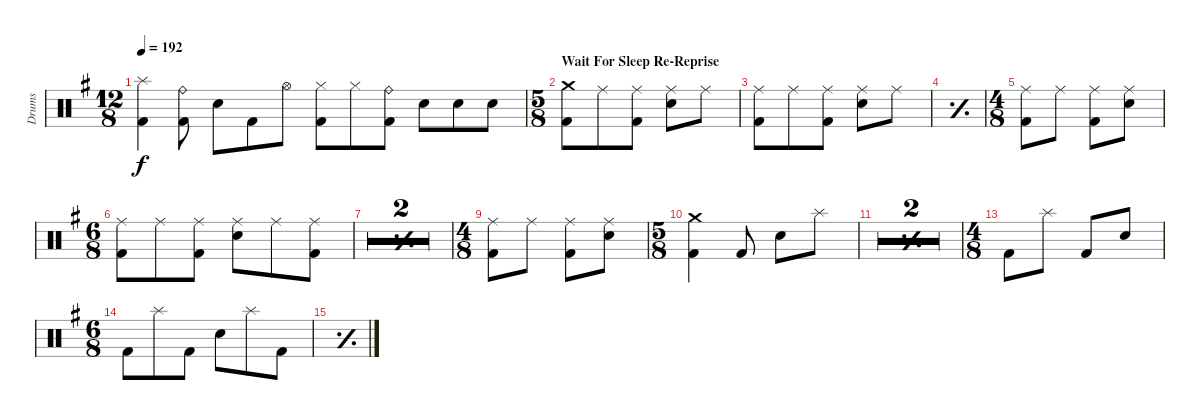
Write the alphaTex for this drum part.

\defaultSystemsLayout 4
\bracketExtendMode groupsimilarinstruments
\otherSystemsTrackNameOrientation horizontal
\track ("Drumkit" "Drums") {multiBarRest instrument percussion}
\staff {score}
\articulation defaults
\ts (12 8)
\tempo 192
\clef neutral
\ks g
("Splash (hit)"{acc forcenatural} "Kick (hit) 2"{acc forcenatural}).4{dy f} ("Ride (bell)"{acc forcenatural} "Kick (hit) 2"{acc forcenatural}).8 "Snare (hit) 2"{acc forcenatural}.8 "Kick (hit) 2"{acc forcenatural}.8 "Hi-Hat (open)"{acc forcenatural}.8 ("Kick (hit) 2"{acc forcenatural} "Hi-Hat (closed)"{acc forcenatural}).8 "Hi-Hat (closed)"{acc forcenatural}.8 ("Ride (bell)"{acc forcenatural} "Kick (hit) 2"{acc forcenatural}).8 "Snare (hit) 2"{acc forcenatural}.8 "Snare (hit) 2"{acc forcenatural}.8 "Snare (hit) 2"{acc forcenatural}.8 |
\ts (5 8)
\beaming (8 3 3 3 3)
\section ("" "Wait For Sleep Re-Reprise")
("Crash medium (hit)"{acc forcenatural} "Kick (hit) 2"{acc forcenatural}).8 "Ride (middle)"{acc forcenatural}.8 ("Ride (middle)"{acc forcenatural} "Kick (hit) 2"{acc forcenatural}).8 ("Ride (middle)"{acc forcenatural} "Snare (hit) 2"{acc forcenatural}).8 "Ride (middle)"{acc forcenatural}.8 |
("Ride (middle)"{acc forcenatural} "Kick (hit) 2"{acc forcenatural}).8 "Ride (middle)"{acc forcenatural}.8 ("Ride (middle)"{acc forcenatural} "Kick (hit) 2"{acc forcenatural}).8 ("Ride (middle)"{acc forcenatural} "Snare (hit) 2"{acc forcenatural}).8 "Ride (middle)"{acc forcenatural}.8 |
\simile simple
|
\ts (4 8)
\beaming (8 2 2)
\simile none
("Ride (middle)"{acc forcenatural} "Kick (hit) 2"{acc forcenatural}).8 "Ride (middle)"{acc forcenatural}.8 ("Ride (middle)"{acc forcenatural} "Kick (hit) 2"{acc forcenatural}).8 ("Ride (middle)"{acc forcenatural} "Snare (hit) 2"{acc forcenatural}).8 |
\ts (6 8)
\beaming (8 3 3 3 3)
("Ride (middle)"{acc forcenatural} "Kick (hit) 2"{acc forcenatural}).8 "Ride (middle)"{acc forcenatural}.8 ("Ride (middle)"{acc forcenatural} "Kick (hit) 2"{acc forcenatural}).8 ("Ride (middle)"{acc forcenatural} "Snare (hit) 2"{acc forcenatural}).8 "Ride (middle)"{acc forcenatural}.8 ("Ride (middle)"{acc forcenatural} "Kick (hit) 2"{acc forcenatural}).8 |
\simile simple
|
|
\ts (4 8)
\beaming (8 2 2)
\simile none
("Ride (middle)"{acc forcenatural} "Kick (hit) 2"{acc forcenatural}).8 "Ride (middle)"{acc forcenatural}.8 ("Ride (middle)"{acc forcenatural} "Kick (hit) 2"{acc forcenatural}).8 ("Ride (middle)"{acc forcenatural} "Snare (hit) 2"{acc forcenatural}).8 |
\ts (5 8)
\beaming (8 3 3 3 3)
("Crash medium (hit)"{acc forcenatural} "Kick (hit) 2"{acc forcenatural}).4 "Kick (hit) 2"{acc forcenatural}.8 "Snare (hit) 2"{acc forcenatural}.8 "Splash (hit)"{acc forcenatural}.8 |
\simile simple
|
|
\ts (4 8)
\beaming (8 2 2)
\simile none "Kick (hit) 2"{acc forcenatural}.8 "Splash (hit)"{acc forcenatural}.8 "Kick (hit) 2"{acc forcenatural}.8 "Snare (hit) 2"{acc forcenatural}.8
|
\ts (6 8)
\beaming (8 3 3 3 3)
"Kick (hit) 2"{acc forcenatural}.8 "Splash (hit)"{acc forcenatural}.8 "Kick (hit) 2"{acc forcenatural}.8 "Snare (hit) 2"{acc forcenatural}.8 "Splash (hit)"{acc forcenatural}.8 "Kick (hit) 2"{acc forcenatural}.8 |
\simile simple
